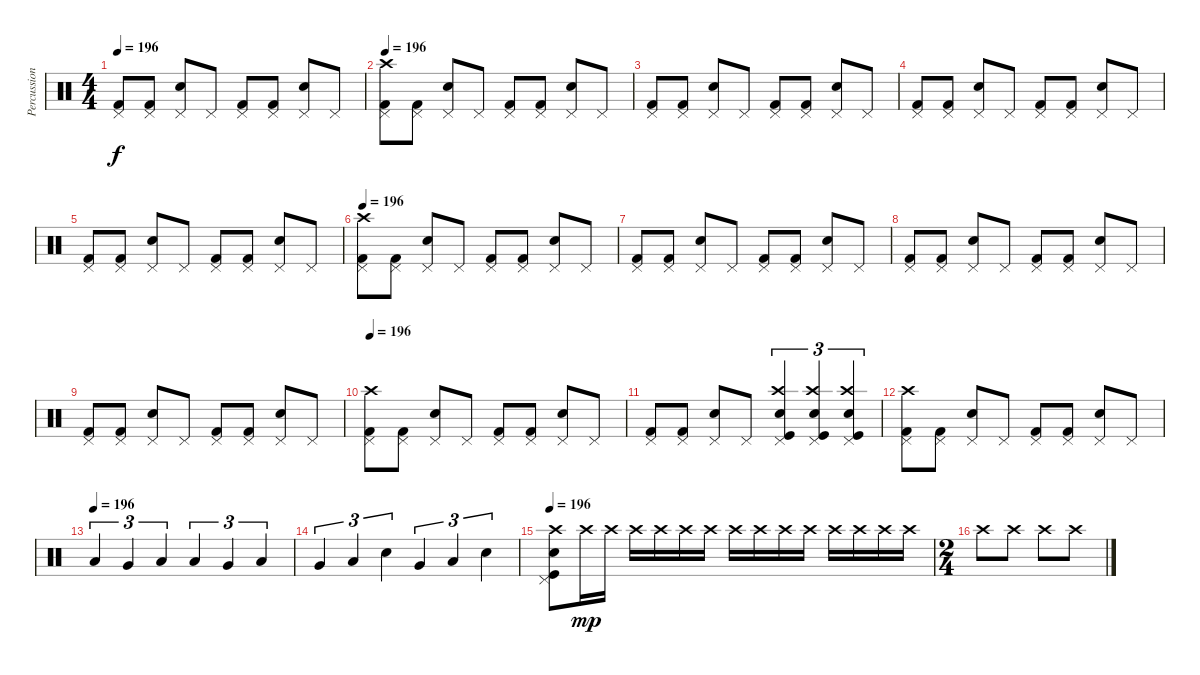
\track ("Percussion" "Percussion") {instrument percussion}
\staff {score}
\articulation defaults
\ts (4 4)
\tempo 196
\clef neutral
\ks c
("Pedal Hi-Hat (hit)" "Kick (hit) 2").8{dy f} ("Pedal Hi-Hat (hit)" "Kick (hit) 2").8 ("Pedal Hi-Hat (hit)" "Snare (hit) 2").8 "Pedal Hi-Hat (hit)".8 ("Pedal Hi-Hat (hit)" "Kick (hit) 2").8 ("Pedal Hi-Hat (hit)" "Kick (hit) 2").8 ("Pedal Hi-Hat (hit)" "Snare (hit) 2").8 "Pedal Hi-Hat (hit)".8 |
\tempo 196
("Pedal Hi-Hat (hit)" "Kick (hit) 2" "Crash high (hit)").8 ("Pedal Hi-Hat (hit)" "Kick (hit) 2").8 ("Pedal Hi-Hat (hit)" "Snare (hit) 2").8 "Pedal Hi-Hat (hit)".8 ("Pedal Hi-Hat (hit)" "Kick (hit) 2").8 ("Pedal Hi-Hat (hit)" "Kick (hit) 2").8 ("Pedal Hi-Hat (hit)" "Snare (hit) 2").8 "Pedal Hi-Hat (hit)".8 |
("Pedal Hi-Hat (hit)" "Kick (hit) 2").8 ("Pedal Hi-Hat (hit)" "Kick (hit) 2").8 ("Pedal Hi-Hat (hit)" "Snare (hit) 2").8 "Pedal Hi-Hat (hit)".8 ("Pedal Hi-Hat (hit)" "Kick (hit) 2").8 ("Pedal Hi-Hat (hit)" "Kick (hit) 2").8 ("Pedal Hi-Hat (hit)" "Snare (hit) 2").8 "Pedal Hi-Hat (hit)".8 |
("Pedal Hi-Hat (hit)" "Kick (hit) 2").8 ("Pedal Hi-Hat (hit)" "Kick (hit) 2").8 ("Pedal Hi-Hat (hit)" "Snare (hit) 2").8 "Pedal Hi-Hat (hit)".8 ("Pedal Hi-Hat (hit)" "Kick (hit) 2").8 ("Pedal Hi-Hat (hit)" "Kick (hit) 2").8 ("Pedal Hi-Hat (hit)" "Snare (hit) 2").8 "Pedal Hi-Hat (hit)".8 |
("Pedal Hi-Hat (hit)" "Kick (hit) 2").8 ("Pedal Hi-Hat (hit)" "Kick (hit) 2").8 ("Pedal Hi-Hat (hit)" "Snare (hit) 2").8 "Pedal Hi-Hat (hit)".8 ("Pedal Hi-Hat (hit)" "Kick (hit) 2").8 ("Pedal Hi-Hat (hit)" "Kick (hit) 2").8 ("Pedal Hi-Hat (hit)" "Snare (hit) 2").8 "Pedal Hi-Hat (hit)".8 |
\tempo 196
("Pedal Hi-Hat (hit)" "Kick (hit) 2" "Crash high (hit)").8 ("Pedal Hi-Hat (hit)" "Kick (hit) 2").8 ("Pedal Hi-Hat (hit)" "Snare (hit) 2").8 "Pedal Hi-Hat (hit)".8 ("Pedal Hi-Hat (hit)" "Kick (hit) 2").8 ("Pedal Hi-Hat (hit)" "Kick (hit) 2").8 ("Pedal Hi-Hat (hit)" "Snare (hit) 2").8 "Pedal Hi-Hat (hit)".8 |
("Pedal Hi-Hat (hit)" "Kick (hit) 2").8 ("Pedal Hi-Hat (hit)" "Kick (hit) 2").8 ("Pedal Hi-Hat (hit)" "Snare (hit) 2").8 "Pedal Hi-Hat (hit)".8 ("Pedal Hi-Hat (hit)" "Kick (hit) 2").8 ("Pedal Hi-Hat (hit)" "Kick (hit) 2").8 ("Pedal Hi-Hat (hit)" "Snare (hit) 2").8 "Pedal Hi-Hat (hit)".8 |
("Pedal Hi-Hat (hit)" "Kick (hit) 2").8 ("Pedal Hi-Hat (hit)" "Kick (hit) 2").8 ("Pedal Hi-Hat (hit)" "Snare (hit) 2").8 "Pedal Hi-Hat (hit)".8 ("Pedal Hi-Hat (hit)" "Kick (hit) 2").8 ("Pedal Hi-Hat (hit)" "Kick (hit) 2").8 ("Pedal Hi-Hat (hit)" "Snare (hit) 2").8 "Pedal Hi-Hat (hit)".8 |
("Pedal Hi-Hat (hit)" "Kick (hit) 2").8 ("Pedal Hi-Hat (hit)" "Kick (hit) 2").8 ("Pedal Hi-Hat (hit)" "Snare (hit) 2").8 "Pedal Hi-Hat (hit)".8 ("Pedal Hi-Hat (hit)" "Kick (hit) 2").8 ("Pedal Hi-Hat (hit)" "Kick (hit) 2").8 ("Pedal Hi-Hat (hit)" "Snare (hit) 2").8 "Pedal Hi-Hat (hit)".8 |
\tempo 196
("Pedal Hi-Hat (hit)" "Kick (hit) 2" "Crash high (hit)").8 ("Pedal Hi-Hat (hit)" "Kick (hit) 2").8 ("Pedal Hi-Hat (hit)" "Snare (hit) 2").8 "Pedal Hi-Hat (hit)".8 ("Pedal Hi-Hat (hit)" "Kick (hit) 2").8 ("Pedal Hi-Hat (hit)" "Kick (hit) 2").8 ("Pedal Hi-Hat (hit)" "Snare (hit) 2").8 "Pedal Hi-Hat (hit)".8 |
("Pedal Hi-Hat (hit)" "Kick (hit) 2").8 ("Pedal Hi-Hat (hit)" "Kick (hit) 2").8 ("Pedal Hi-Hat (hit)" "Snare (hit) 2").8 "Pedal Hi-Hat (hit)".8 ("Pedal Hi-Hat (hit)" "Crash high (hit)" "Kick (hit)" "Snare (hit) 2").4{tu (3 2)} ("Pedal Hi-Hat (hit)" "Crash high (hit)" "Kick (hit)" "Snare (hit) 2").4{tu (3 2)} ("Pedal Hi-Hat (hit)" "Crash high (hit)" "Kick (hit)" "Snare (hit) 2").4{tu (3 2)} |
("Pedal Hi-Hat (hit)" "Kick (hit) 2" "Crash high (hit)").8 ("Pedal Hi-Hat (hit)" "Kick (hit) 2").8 ("Pedal Hi-Hat (hit)" "Snare (hit) 2").8 "Pedal Hi-Hat (hit)".8 ("Pedal Hi-Hat (hit)" "Kick (hit) 2").8 ("Pedal Hi-Hat (hit)" "Kick (hit) 2").8 ("Pedal Hi-Hat (hit)" "Snare (hit) 2").8 "Pedal Hi-Hat (hit)".8 |
\tempo (196)
"Low Tom (hit)".4{tu (3 2)} "Very Low Tom (hit)".4{tu (3 2)} "Low Floor Tom (hit)".4{tu (3 2)} "Low Tom (hit)".4{tu (3 2)} "Very Low Tom (hit)".4{tu (3 2)} "Low Floor Tom (hit)".4{tu (3 2)} |
"Very Low Tom (hit)".4{tu (3 2)} "Low Floor Tom (hit)".4{tu (3 2)} "Electric Snare (hit)".4{tu (3 2)} "Very Low Tom (hit)".4{tu (3 2)} "Low Floor Tom (hit)".4{tu (3 2)} "Electric Snare (hit)".4{tu (3 2)} |
\tempo 196
("Crash high (hit)" "Kick (hit)" "Snare (hit) 2" "Pedal Hi-Hat (hit)").8 "Crash high (hit)".16{dy mp} "Crash high (hit)".16 "Crash high (hit)".16 "Crash high (hit)".16 "Crash high (hit)".16 "Crash high (hit)".16 "Crash high (hit)".16 "Crash high (hit)".16 "Crash high (hit)".16 "Crash high (hit)".16 "Crash high (hit)".16 "Crash high (hit)".16 "Crash high (hit)".16 "Crash high (hit)".16 |
\ts (2 4)
"Crash high (hit)".8 "Crash high (hit)".8 "Crash high (hit)".8 "Crash high (hit)".8
